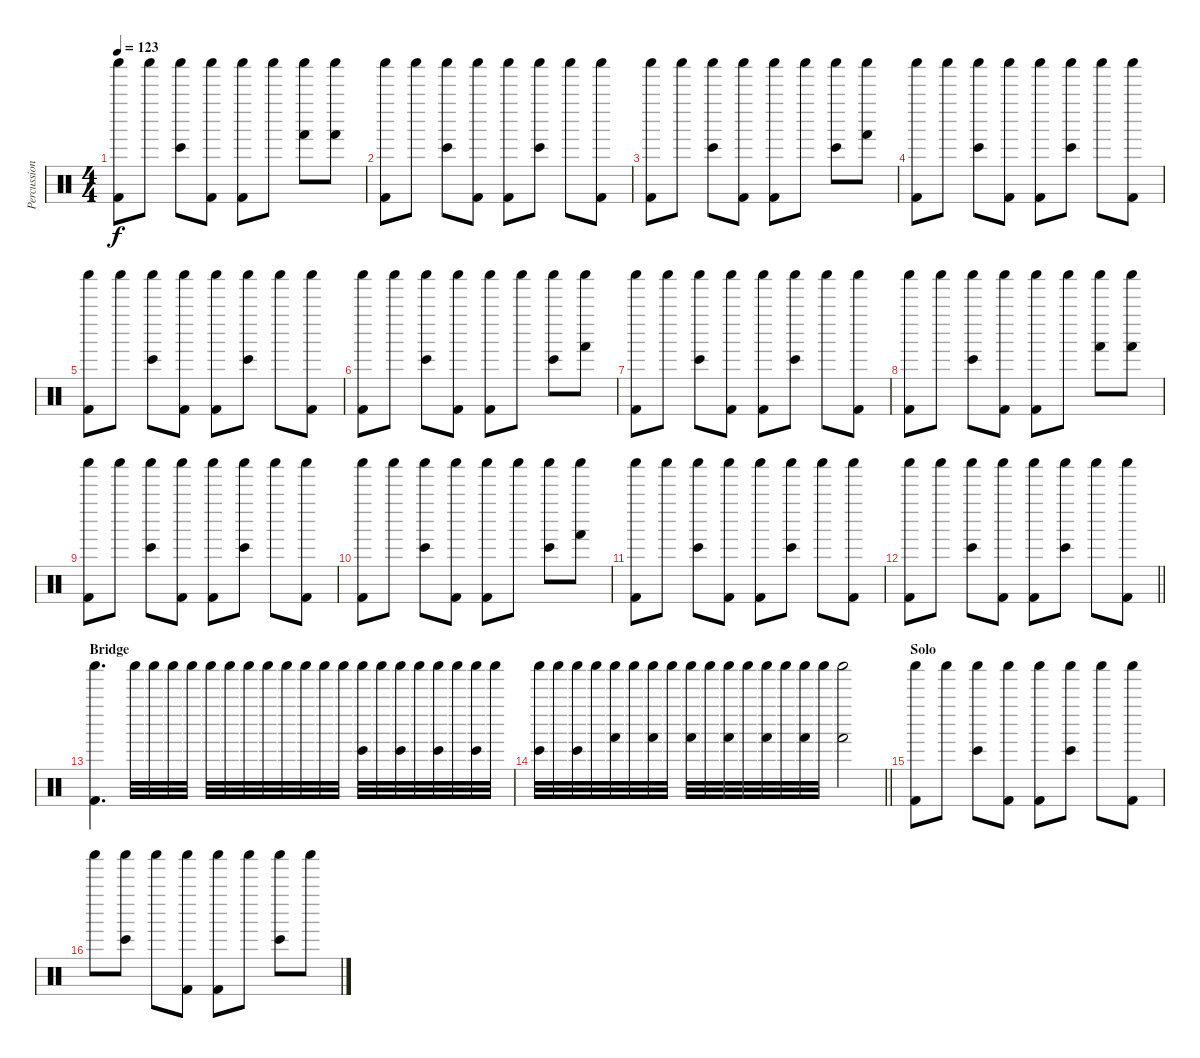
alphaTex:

\track ("Percussion" "Percussion") {instrument percussion}
\staff {score}
\articulation defaults
\ts (4 4)
\tempo 123
\clef neutral
\ks c
("Shaker (hit)" "Kick (hit) 2").8{dy f} "Shaker (hit)".8 ("Shaker (hit)" "Bongo High (hit)").8 ("Shaker (hit)" "Kick (hit) 2").8 ("Shaker (hit)" "Kick (hit) 2").8 "Shaker (hit)".8 ("Shaker (hit)" "Hand (hit)").8 ("Shaker (hit)" "Hand (hit)").8 |
("Shaker (hit)" "Kick (hit) 2").8 "Shaker (hit)".8 ("Shaker (hit)" "Bongo High (hit)").8 ("Shaker (hit)" "Kick (hit) 2").8 ("Shaker (hit)" "Kick (hit) 2").8 ("Shaker (hit)" "Bongo High (hit)").8 "Shaker (hit)".8 ("Shaker (hit)" "Kick (hit) 2").8 |
("Shaker (hit)" "Kick (hit) 2").8 "Shaker (hit)".8 ("Shaker (hit)" "Bongo High (hit)").8 ("Shaker (hit)" "Kick (hit) 2").8 ("Shaker (hit)" "Kick (hit) 2").8 "Shaker (hit)".8 ("Shaker (hit)" "Bongo High (hit)").8 ("Shaker (hit)" "Hand (hit)").8 |
("Shaker (hit)" "Kick (hit) 2").8 "Shaker (hit)".8 ("Shaker (hit)" "Bongo High (hit)").8 ("Shaker (hit)" "Kick (hit) 2").8 ("Shaker (hit)" "Kick (hit) 2").8 ("Shaker (hit)" "Bongo High (hit)").8 "Shaker (hit)".8 ("Shaker (hit)" "Kick (hit) 2").8 |
("Shaker (hit)" "Kick (hit) 2").8 "Shaker (hit)".8 ("Shaker (hit)" "Bongo High (hit)").8 ("Shaker (hit)" "Kick (hit) 2").8 ("Shaker (hit)" "Kick (hit) 2").8 ("Shaker (hit)" "Bongo High (hit)").8 "Shaker (hit)".8 ("Shaker (hit)" "Kick (hit) 2").8 |
("Shaker (hit)" "Kick (hit) 2").8 "Shaker (hit)".8 ("Shaker (hit)" "Bongo High (hit)").8 ("Shaker (hit)" "Kick (hit) 2").8 ("Shaker (hit)" "Kick (hit) 2").8 "Shaker (hit)".8 ("Shaker (hit)" "Bongo High (hit)").8 ("Shaker (hit)" "Hand (hit)").8 |
("Shaker (hit)" "Kick (hit) 2").8 "Shaker (hit)".8 ("Shaker (hit)" "Bongo High (hit)").8 ("Shaker (hit)" "Kick (hit) 2").8 ("Shaker (hit)" "Kick (hit) 2").8 ("Shaker (hit)" "Bongo High (hit)").8 "Shaker (hit)".8 ("Shaker (hit)" "Kick (hit) 2").8 |
("Shaker (hit)" "Kick (hit) 2").8 "Shaker (hit)".8 ("Shaker (hit)" "Bongo High (hit)").8 ("Shaker (hit)" "Kick (hit) 2").8 ("Shaker (hit)" "Kick (hit) 2").8 "Shaker (hit)".8 ("Shaker (hit)" "Hand (hit)").8 ("Shaker (hit)" "Hand (hit)").8 |
("Shaker (hit)" "Kick (hit) 2").8 "Shaker (hit)".8 ("Shaker (hit)" "Bongo High (hit)").8 ("Shaker (hit)" "Kick (hit) 2").8 ("Shaker (hit)" "Kick (hit) 2").8 ("Shaker (hit)" "Bongo High (hit)").8 "Shaker (hit)".8 ("Shaker (hit)" "Kick (hit) 2").8 |
("Shaker (hit)" "Kick (hit) 2").8 "Shaker (hit)".8 ("Shaker (hit)" "Bongo High (hit)").8 ("Shaker (hit)" "Kick (hit) 2").8 ("Shaker (hit)" "Kick (hit) 2").8 "Shaker (hit)".8 ("Shaker (hit)" "Bongo High (hit)").8 ("Shaker (hit)" "Hand (hit)").8 |
("Shaker (hit)" "Kick (hit) 2").8 "Shaker (hit)".8 ("Shaker (hit)" "Bongo High (hit)").8 ("Shaker (hit)" "Kick (hit) 2").8 ("Shaker (hit)" "Kick (hit) 2").8 ("Shaker (hit)" "Bongo High (hit)").8 "Shaker (hit)".8 ("Shaker (hit)" "Kick (hit) 2").8 |
\barLineRight lightlight
("Shaker (hit)" "Kick (hit) 2").8 "Shaker (hit)".8 ("Shaker (hit)" "Bongo High (hit)").8 ("Shaker (hit)" "Kick (hit) 2").8 ("Shaker (hit)" "Kick (hit) 2").8 ("Shaker (hit)" "Bongo High (hit)").8 "Shaker (hit)".8 ("Shaker (hit)" "Kick (hit) 2").8 |
\section ("" "Bridge")
("Shaker (hit)" "Kick (hit) 2").4{d} "Shaker (hit)".32{balance 1} "Shaker (hit)".32 "Shaker (hit)".32 "Shaker (hit)".32 "Shaker (hit)".32 "Shaker (hit)".32 "Shaker (hit)".32 "Shaker (hit)".32 "Shaker (hit)".32 "Shaker (hit)".32 "Shaker (hit)".32 "Shaker (hit)".32 ("Shaker (hit)" "Bongo High (hit)").32 "Shaker (hit)".32 ("Shaker (hit)" "Bongo High (hit)").32 "Shaker (hit)".32 ("Shaker (hit)" "Bongo High (hit)").32 "Shaker (hit)".32 ("Shaker (hit)" "Bongo High (hit)").32 "Shaker (hit)".32 |
\barLineRight lightlight
("Shaker (hit)" "Bongo High (hit)").32 "Shaker (hit)".32 ("Shaker (hit)" "Bongo High (hit)").32 "Shaker (hit)".32 ("Shaker (hit)" "Hand (hit)").32 "Shaker (hit)".32 ("Shaker (hit)" "Hand (hit)").32 "Shaker (hit)".32 ("Shaker (hit)" "Hand (hit)").32 "Shaker (hit)".32 ("Shaker (hit)" "Hand (hit)").32 "Shaker (hit)".32 ("Shaker (hit)" "Hand (hit)").32 "Shaker (hit)".32 ("Shaker (hit)" "Hand (hit)").32 "Shaker (hit)".32 ("Shaker (hit)" "Hand (hit)").2 |
\section ("" "Solo")
("Shaker (hit)" "Kick (hit) 2").8{balance 8} "Shaker (hit)".8 ("Shaker (hit)" "Bongo High (hit)").8 ("Shaker (hit)" "Kick (hit) 2").8 ("Shaker (hit)" "Kick (hit) 2").8 ("Shaker (hit)" "Bongo High (hit)").8 "Shaker (hit)".8 ("Shaker (hit)" "Kick (hit) 2").8 |
"Shaker (hit)".8 ("Shaker (hit)" "Bongo High (hit)").8 "Shaker (hit)".8 ("Shaker (hit)" "Kick (hit) 2").8 ("Shaker (hit)" "Kick (hit) 2").8 "Shaker (hit)".8 ("Shaker (hit)" "Bongo High (hit)").8 "Shaker (hit)".8
